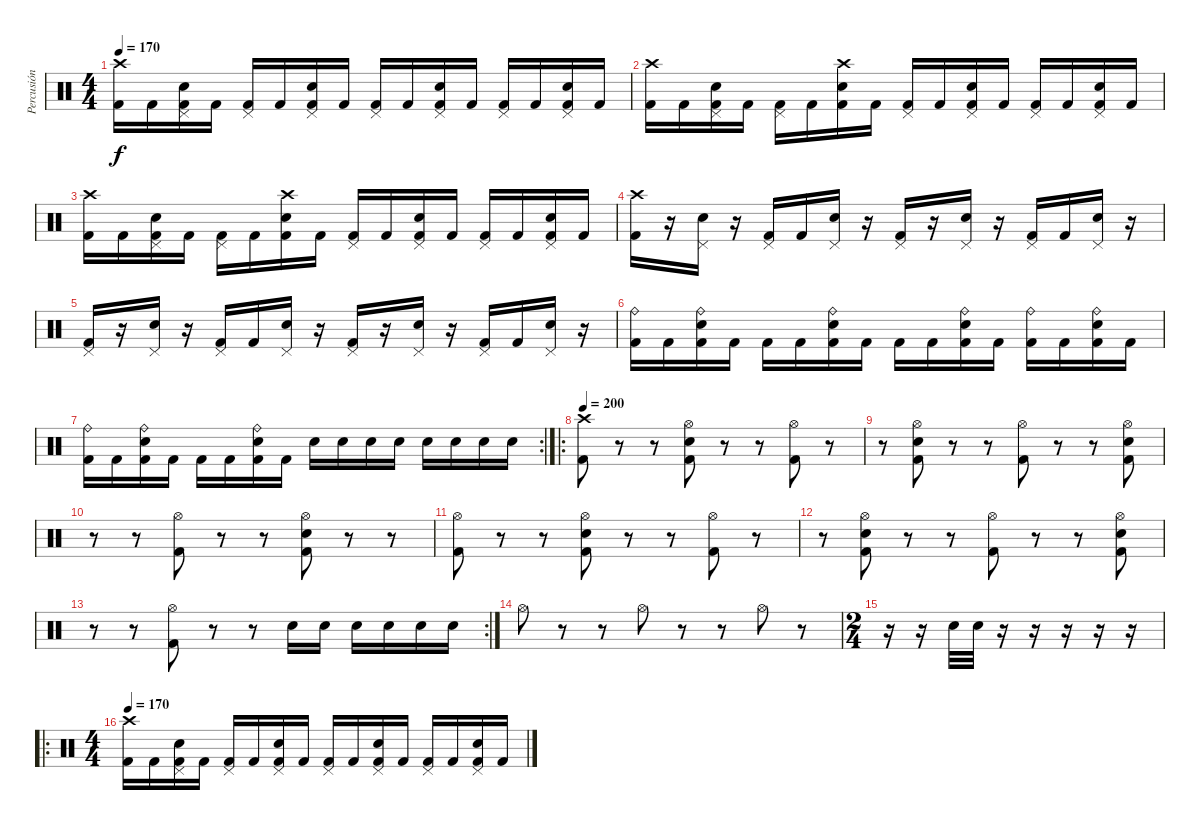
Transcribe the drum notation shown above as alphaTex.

\track ("Percusión" "Percusión") {instrument percussion}
\staff {score}
\articulation defaults
\ts (4 4)
\tempo 170
\clef neutral
\ks c
("Crash high (hit)" "Kick (hit) 2").16{dy f} "Kick (hit) 2".16 ("Pedal Hi-Hat (hit)" "Kick (hit) 2" "Electric Snare (hit)").16 "Kick (hit) 2".16 ("Pedal Hi-Hat (hit)" "Kick (hit) 2").16 "Kick (hit) 2".16 ("Pedal Hi-Hat (hit)" "Kick (hit) 2" "Electric Snare (hit)").16 "Kick (hit) 2".16 ("Pedal Hi-Hat (hit)" "Kick (hit) 2").16 "Kick (hit) 2".16 ("Pedal Hi-Hat (hit)" "Kick (hit) 2" "Electric Snare (hit)").16 "Kick (hit) 2".16 ("Pedal Hi-Hat (hit)" "Kick (hit) 2").16 "Kick (hit) 2".16 ("Pedal Hi-Hat (hit)" "Kick (hit) 2" "Electric Snare (hit)").16 "Kick (hit) 2".16 |
("Crash high (hit)" "Kick (hit) 2").16 "Kick (hit) 2".16 ("Pedal Hi-Hat (hit)" "Kick (hit) 2" "Electric Snare (hit)").16 "Kick (hit) 2".16 ("Pedal Hi-Hat (hit)" "Kick (hit) 2").16 "Kick (hit) 2".16 ("Crash high (hit)" "Kick (hit) 2" "Electric Snare (hit)").16 "Kick (hit) 2".16 ("Pedal Hi-Hat (hit)" "Kick (hit) 2").16 "Kick (hit) 2".16 ("Pedal Hi-Hat (hit)" "Kick (hit) 2" "Electric Snare (hit)").16 "Kick (hit) 2".16 ("Pedal Hi-Hat (hit)" "Kick (hit) 2").16 "Kick (hit) 2".16 ("Pedal Hi-Hat (hit)" "Kick (hit) 2" "Electric Snare (hit)").16 "Kick (hit) 2".16 |
("Crash high (hit)" "Kick (hit) 2").16 "Kick (hit) 2".16 ("Pedal Hi-Hat (hit)" "Kick (hit) 2" "Electric Snare (hit)").16 "Kick (hit) 2".16 ("Pedal Hi-Hat (hit)" "Kick (hit) 2").16 "Kick (hit) 2".16 ("Crash high (hit)" "Kick (hit) 2" "Electric Snare (hit)").16 "Kick (hit) 2".16 ("Pedal Hi-Hat (hit)" "Kick (hit) 2").16 "Kick (hit) 2".16 ("Pedal Hi-Hat (hit)" "Kick (hit) 2" "Electric Snare (hit)").16 "Kick (hit) 2".16 ("Pedal Hi-Hat (hit)" "Kick (hit) 2").16 "Kick (hit) 2".16 ("Pedal Hi-Hat (hit)" "Kick (hit) 2" "Electric Snare (hit)").16 "Kick (hit) 2".16 |
("Crash high (hit)" "Kick (hit) 2").16 r.16 ("Pedal Hi-Hat (hit)" "Electric Snare (hit)").16 r.16 ("Pedal Hi-Hat (hit)" "Kick (hit) 2").16 "Kick (hit) 2".16 ("Pedal Hi-Hat (hit)" "Electric Snare (hit)").16 r.16 ("Pedal Hi-Hat (hit)" "Kick (hit) 2").16 r.16 ("Pedal Hi-Hat (hit)" "Electric Snare (hit)").16 r.16 ("Pedal Hi-Hat (hit)" "Kick (hit) 2").16 "Kick (hit) 2".16 ("Pedal Hi-Hat (hit)" "Electric Snare (hit)").16 r.16 |
("Pedal Hi-Hat (hit)" "Kick (hit) 2").16 r.16 ("Pedal Hi-Hat (hit)" "Electric Snare (hit)").16 r.16 ("Pedal Hi-Hat (hit)" "Kick (hit) 2").16 "Kick (hit) 2".16 ("Pedal Hi-Hat (hit)" "Electric Snare (hit)").16 r.16 ("Pedal Hi-Hat (hit)" "Kick (hit) 2").16 r.16 ("Pedal Hi-Hat (hit)" "Electric Snare (hit)").16 r.16 ("Pedal Hi-Hat (hit)" "Kick (hit) 2").16 "Kick (hit) 2".16 ("Pedal Hi-Hat (hit)" "Electric Snare (hit)").16 r.16 |
("Ride (bell)" "Kick (hit) 2").16 "Kick (hit) 2".16 ("Ride (bell)" "Kick (hit) 2" "Electric Snare (hit)").16 "Kick (hit) 2".16 "Kick (hit) 2".16 "Kick (hit) 2".16 ("Ride (bell)" "Kick (hit) 2" "Electric Snare (hit)").16 "Kick (hit) 2".16 "Kick (hit) 2".16 "Kick (hit) 2".16 ("Ride (bell)" "Kick (hit) 2" "Electric Snare (hit)").16 "Kick (hit) 2".16 ("Ride (bell)" "Kick (hit) 2").16 "Kick (hit) 2".16 ("Ride (bell)" "Kick (hit) 2" "Electric Snare (hit)").16 "Kick (hit) 2".16 |
\rc 2
("Ride (bell)" "Kick (hit) 2").16 "Kick (hit) 2".16 ("Ride (bell)" "Kick (hit) 2" "Electric Snare (hit)").16 "Kick (hit) 2".16 "Kick (hit) 2".16 "Kick (hit) 2".16 ("Ride (bell)" "Kick (hit) 2" "Electric Snare (hit)").16 "Kick (hit) 2".16 "Electric Snare (hit)".16 "Electric Snare (hit)".16 "Electric Snare (hit)".16 "Electric Snare (hit)".16 "Electric Snare (hit)".16 "Electric Snare (hit)".16 "Electric Snare (hit)".16 "Electric Snare (hit)".16 |
\ro
\tempo 200
("Crash high (hit)" "Kick (hit) 2").8 r.8 r.8 ("Hi-Hat (open)" "Kick (hit) 2" "Electric Snare (hit)").8 r.8 r.8 ("Hi-Hat (open)" "Kick (hit) 2").8 r.8 |
r.8 ("Hi-Hat (open)" "Kick (hit) 2" "Electric Snare (hit)").8 r.8 r.8 ("Hi-Hat (open)" "Kick (hit) 2").8 r.8 r.8 ("Hi-Hat (open)" "Kick (hit) 2" "Electric Snare (hit)").8 |
r.8 r.8 ("Hi-Hat (open)" "Kick (hit) 2").8 r.8 r.8 ("Hi-Hat (open)" "Kick (hit) 2" "Electric Snare (hit)").8 r.8 r.8 |
("Hi-Hat (open)" "Kick (hit) 2").8 r.8 r.8 ("Hi-Hat (open)" "Kick (hit) 2" "Electric Snare (hit)").8 r.8 r.8 ("Hi-Hat (open)" "Kick (hit) 2").8 r.8 |
r.8 ("Hi-Hat (open)" "Kick (hit) 2" "Electric Snare (hit)").8 r.8 r.8 ("Hi-Hat (open)" "Kick (hit) 2").8 r.8 r.8 ("Hi-Hat (open)" "Kick (hit) 2" "Electric Snare (hit)").8 |
\rc 2
r.8 r.8 ("Hi-Hat (open)" "Kick (hit) 2").8 r.8 r.8 "Electric Snare (hit)".16 "Electric Snare (hit)".16 "Electric Snare (hit)".16 "Electric Snare (hit)".16 "Electric Snare (hit)".16 "Electric Snare (hit)".16 |
"Hi-Hat (open)".8 r.8 r.8 "Hi-Hat (open)".8 r.8 r.8 "Hi-Hat (open)".8 r.8 |
\ts (2 4)
r.16 r.16 "Electric Snare (hit)".32 "Electric Snare (hit)".32 r.16 r.16 r.16 r.16 r.16 |
\ro
\ts (4 4)
\tempo 170
("Crash high (hit)" "Kick (hit) 2").16 "Kick (hit) 2".16 ("Pedal Hi-Hat (hit)" "Kick (hit) 2" "Electric Snare (hit)").16 "Kick (hit) 2".16 ("Pedal Hi-Hat (hit)" "Kick (hit) 2").16 "Kick (hit) 2".16 ("Pedal Hi-Hat (hit)" "Kick (hit) 2" "Electric Snare (hit)").16 "Kick (hit) 2".16 ("Pedal Hi-Hat (hit)" "Kick (hit) 2").16 "Kick (hit) 2".16 ("Pedal Hi-Hat (hit)" "Kick (hit) 2" "Electric Snare (hit)").16 "Kick (hit) 2".16 ("Pedal Hi-Hat (hit)" "Kick (hit) 2").16 "Kick (hit) 2".16 ("Pedal Hi-Hat (hit)" "Kick (hit) 2" "Electric Snare (hit)").16 "Kick (hit) 2".16
